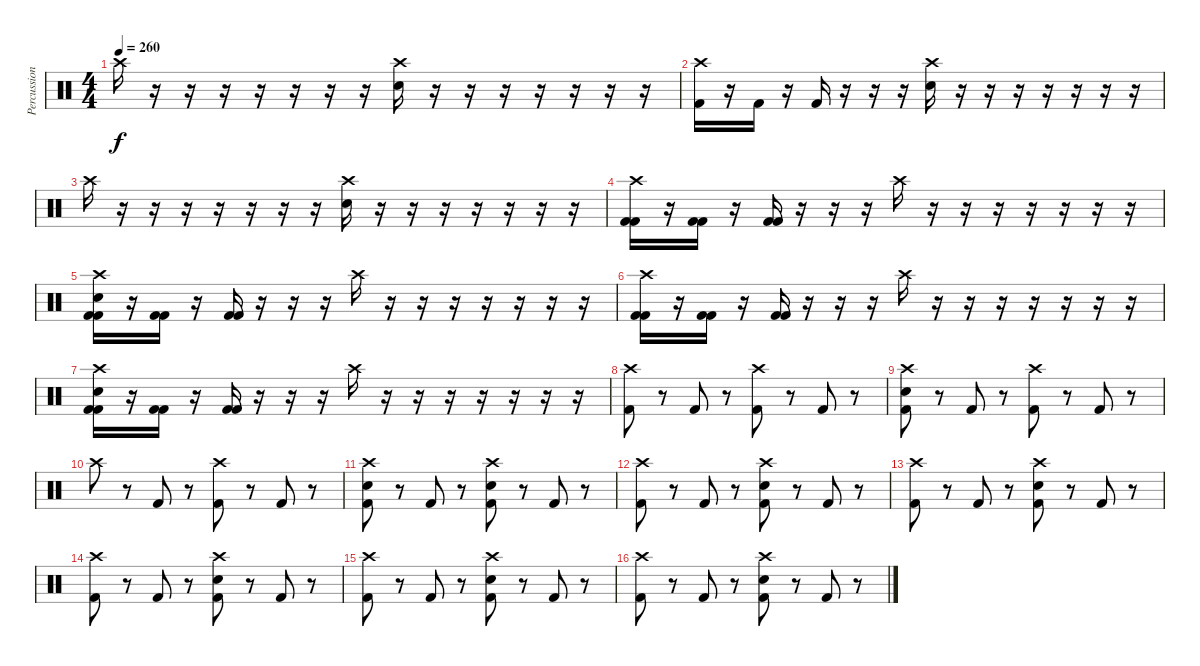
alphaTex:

\track ("Percussion" "Percussion") {instrument percussion}
\staff {score}
\articulation defaults
\ts (4 4)
\tempo 260
\clef neutral
\ks c "Crash high (hit)".16{dy f}
r.16 r.16 r.16 r.16 r.16 r.16 r.16 ("Snare (hit) 2" "Crash high (hit)").16 r.16 r.16 r.16 r.16 r.16 r.16 r.16 |
("Kick (hit) 2" "Crash high (hit)").16 r.16 "Kick (hit) 2".16 r.16 "Kick (hit) 2".16 r.16 r.16 r.16 ("Snare (hit) 2" "Crash high (hit)").16 r.16 r.16 r.16 r.16 r.16 r.16 r.16 |
"Crash high (hit)".16 r.16 r.16 r.16 r.16 r.16 r.16 r.16 ("Snare (hit) 2" "Crash high (hit)").16 r.16 r.16 r.16 r.16 r.16 r.16 r.16 |
("Kick (hit) 2" "Kick (hit) 2" "Crash high (hit)").16 r.16 ("Kick (hit) 2" "Kick (hit) 2").16 r.16 ("Kick (hit) 2" "Kick (hit) 2").16 r.16 r.16 r.16 "Crash high (hit)".16 r.16 r.16 r.16 r.16 r.16 r.16 r.16 |
("Kick (hit) 2" "Kick (hit) 2" "Snare (hit) 2" "Crash high (hit)").16 r.16 ("Kick (hit) 2" "Kick (hit) 2").16 r.16 ("Kick (hit) 2" "Kick (hit) 2").16 r.16 r.16 r.16 "Crash high (hit)".16 r.16 r.16 r.16 r.16 r.16 r.16 r.16 |
("Kick (hit) 2" "Kick (hit) 2" "Crash high (hit)").16 r.16 ("Kick (hit) 2" "Kick (hit) 2").16 r.16 ("Kick (hit) 2" "Kick (hit) 2").16 r.16 r.16 r.16 "Crash high (hit)".16 r.16 r.16 r.16 r.16 r.16 r.16 r.16 |
("Kick (hit) 2" "Kick (hit) 2" "Snare (hit) 2" "Crash high (hit)").16 r.16 ("Kick (hit) 2" "Kick (hit) 2").16 r.16 ("Kick (hit) 2" "Kick (hit) 2").16 r.16 r.16 r.16 "Crash high (hit)".16 r.16 r.16 r.16 r.16 r.16 r.16 r.16 |
("Kick (hit) 2" "Crash high (hit)").8 r.8 "Kick (hit) 2".8 r.8 ("Kick (hit) 2" "Crash high (hit)").8 r.8 "Kick (hit) 2".8 r.8 |
("Kick (hit) 2" "Snare (hit) 2" "Crash high (hit)").8 r.8 "Kick (hit) 2".8 r.8 ("Kick (hit) 2" "Crash high (hit)").8 r.8 "Kick (hit) 2".8 r.8 |
"Crash high (hit)".8 r.8 "Kick (hit) 2".8 r.8 ("Kick (hit) 2" "Crash high (hit)").8 r.8 "Kick (hit) 2".8 r.8 |
("Kick (hit) 2" "Snare (hit) 2" "Crash high (hit)").8 r.8 "Kick (hit) 2".8 r.8 ("Kick (hit) 2" "Snare (hit) 2" "Crash high (hit)").8 r.8 "Kick (hit) 2".8 r.8 |
("Kick (hit) 2" "Crash high (hit)").8 r.8 "Kick (hit) 2".8 r.8 ("Kick (hit) 2" "Snare (hit) 2" "Crash high (hit)").8 r.8 "Kick (hit) 2".8 r.8 |
("Kick (hit) 2" "Crash high (hit)").8 r.8 "Kick (hit) 2".8 r.8 ("Kick (hit) 2" "Snare (hit) 2" "Crash high (hit)").8 r.8 "Kick (hit) 2".8 r.8 |
("Kick (hit) 2" "Crash high (hit)").8 r.8 "Kick (hit) 2".8 r.8 ("Kick (hit) 2" "Snare (hit) 2" "Crash high (hit)").8 r.8 "Kick (hit) 2".8 r.8 |
("Kick (hit) 2" "Crash high (hit)").8 r.8 "Kick (hit) 2".8 r.8 ("Kick (hit) 2" "Snare (hit) 2" "Crash high (hit)").8 r.8 "Kick (hit) 2".8 r.8 |
("Kick (hit) 2" "Crash high (hit)").8 r.8 "Kick (hit) 2".8 r.8 ("Kick (hit) 2" "Snare (hit) 2" "Crash high (hit)").8 r.8 "Kick (hit) 2".8 r.8
